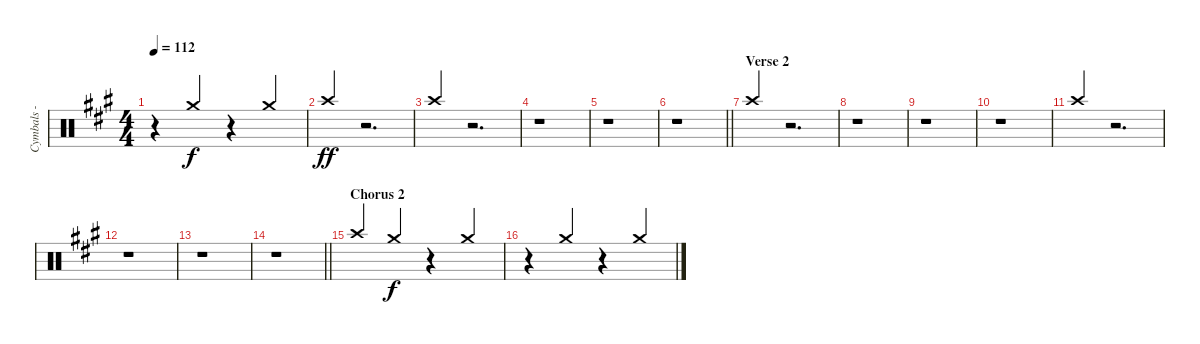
\track ("Cymbals - crash" "Cymbals - ") {instrument percussion}
\staff {score}
\articulation defaults
\ts (4 4)
\tempo 112
\clef neutral
\ks f#minor
r.4{dy f beam Up} "Crash medium (hit)".4{beam Up} r.4 "Crash medium (hit)".4{beam Up} |
"Crash high (hit)".4{dy ff volume 4 balance 8 beam Up} r.2{d} |
"Crash high (hit)".4{beam Up} r.2{d} |
r.1 |
r.1 |
\barLineRight lightlight
r.1 |
\section ("" "Verse 2")
"Crash high (hit)".4{beam Up} r.2{d} |
r.1 |
r.1 |
r.1 |
"Crash high (hit)".4{beam Up} r.2{d} |
r.1 |
r.1 |
\barLineRight lightlight
r.1 |
\section ("" "Chorus 2")
"Crash high (hit)".4{beam Up} "Crash medium (hit)".4{dy f volume 3 balance 4 beam Up} r.4 "Crash medium (hit)".4{beam Up} |
r.4{beam Up} "Crash medium (hit)".4{beam Up} r.4 "Crash medium (hit)".4{beam Up}
